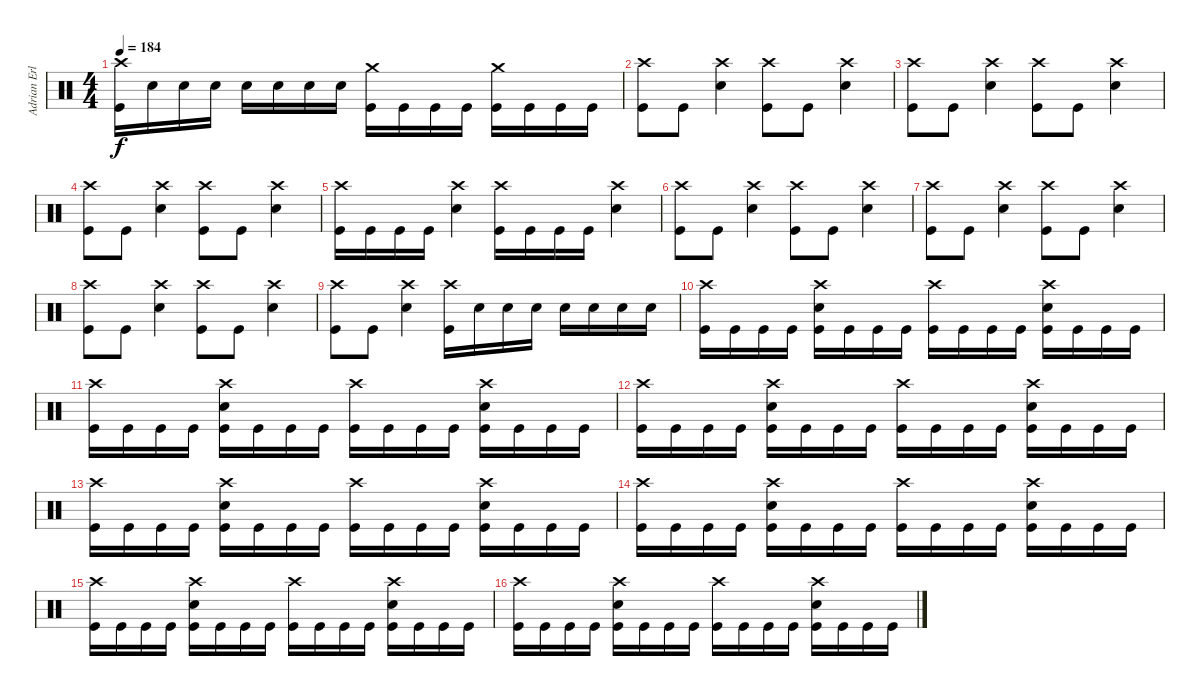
\track ("Adrian Erlandsson (Norseman of the Apoca" "Adrian Erl") {instrument percussion}
\staff {score}
\articulation defaults
\ts (4 4)
\tempo 184
\clef neutral
\ks c
("Crash high (hit)" "Kick (hit)").16{dy f} "Electric Snare (hit)".16 "Electric Snare (hit)".16 "Electric Snare (hit)".16 "Electric Snare (hit)".16 "Electric Snare (hit)".16 "Electric Snare (hit)".16 "Electric Snare (hit)".16 ("Crash medium (hit)" "Kick (hit)").16 "Kick (hit)".16 "Kick (hit)".16 "Kick (hit)".16 ("Crash medium (hit)" "Kick (hit)").16 "Kick (hit)".16 "Kick (hit)".16 "Kick (hit)".16 |
("Crash high (hit)" "Kick (hit)").8 "Kick (hit)".8 ("Crash high (hit)" "Electric Snare (hit)").4 ("Crash high (hit)" "Kick (hit)").8 "Kick (hit)".8 ("Crash high (hit)" "Electric Snare (hit)").4 |
("Crash high (hit)" "Kick (hit)").8 "Kick (hit)".8 ("Crash high (hit)" "Electric Snare (hit)").4 ("Crash high (hit)" "Kick (hit)").8 "Kick (hit)".8 ("Crash high (hit)" "Electric Snare (hit)").4 |
("Crash high (hit)" "Kick (hit)").8 "Kick (hit)".8 ("Crash high (hit)" "Electric Snare (hit)").4 ("Crash high (hit)" "Kick (hit)").8 "Kick (hit)".8 ("Crash high (hit)" "Electric Snare (hit)").4 |
("Crash high (hit)" "Kick (hit)").16 "Kick (hit)".16 "Kick (hit)".16 "Kick (hit)".16 ("Crash high (hit)" "Electric Snare (hit)").4 ("Crash high (hit)" "Kick (hit)").16 "Kick (hit)".16 "Kick (hit)".16 "Kick (hit)".16 ("Crash high (hit)" "Electric Snare (hit)").4 |
("Crash high (hit)" "Kick (hit)").8 "Kick (hit)".8 ("Crash high (hit)" "Electric Snare (hit)").4 ("Crash high (hit)" "Kick (hit)").8 "Kick (hit)".8 ("Crash high (hit)" "Electric Snare (hit)").4 |
("Crash high (hit)" "Kick (hit)").8 "Kick (hit)".8 ("Crash high (hit)" "Electric Snare (hit)").4 ("Crash high (hit)" "Kick (hit)").8 "Kick (hit)".8 ("Crash high (hit)" "Electric Snare (hit)").4 |
("Crash high (hit)" "Kick (hit)").8 "Kick (hit)".8 ("Crash high (hit)" "Electric Snare (hit)").4 ("Crash high (hit)" "Kick (hit)").8 "Kick (hit)".8 ("Crash high (hit)" "Electric Snare (hit)").4 |
("Crash high (hit)" "Kick (hit)").8 "Kick (hit)".8 ("Crash high (hit)" "Electric Snare (hit)").4 ("Crash high (hit)" "Kick (hit)").16 "Electric Snare (hit)".16 "Electric Snare (hit)".16 "Electric Snare (hit)".16 "Electric Snare (hit)".16 "Electric Snare (hit)".16 "Electric Snare (hit)".16 "Electric Snare (hit)".16 |
("Crash high (hit)" "Kick (hit)").16 "Kick (hit)".16 "Kick (hit)".16 "Kick (hit)".16 ("Crash high (hit)" "Electric Snare (hit)" "Kick (hit)").16 "Kick (hit)".16 "Kick (hit)".16 "Kick (hit)".16 ("Crash high (hit)" "Kick (hit)").16 "Kick (hit)".16 "Kick (hit)".16 "Kick (hit)".16 ("Crash high (hit)" "Electric Snare (hit)" "Kick (hit)").16 "Kick (hit)".16 "Kick (hit)".16 "Kick (hit)".16 |
("Crash high (hit)" "Kick (hit)").16 "Kick (hit)".16 "Kick (hit)".16 "Kick (hit)".16 ("Crash high (hit)" "Electric Snare (hit)" "Kick (hit)").16 "Kick (hit)".16 "Kick (hit)".16 "Kick (hit)".16 ("Crash high (hit)" "Kick (hit)").16 "Kick (hit)".16 "Kick (hit)".16 "Kick (hit)".16 ("Crash high (hit)" "Electric Snare (hit)" "Kick (hit)").16 "Kick (hit)".16 "Kick (hit)".16 "Kick (hit)".16 |
("Crash high (hit)" "Kick (hit)").16 "Kick (hit)".16 "Kick (hit)".16 "Kick (hit)".16 ("Crash high (hit)" "Electric Snare (hit)" "Kick (hit)").16 "Kick (hit)".16 "Kick (hit)".16 "Kick (hit)".16 ("Crash high (hit)" "Kick (hit)").16 "Kick (hit)".16 "Kick (hit)".16 "Kick (hit)".16 ("Crash high (hit)" "Electric Snare (hit)" "Kick (hit)").16 "Kick (hit)".16 "Kick (hit)".16 "Kick (hit)".16 |
("Crash high (hit)" "Kick (hit)").16 "Kick (hit)".16 "Kick (hit)".16 "Kick (hit)".16 ("Crash high (hit)" "Electric Snare (hit)" "Kick (hit)").16 "Kick (hit)".16 "Kick (hit)".16 "Kick (hit)".16 ("Crash high (hit)" "Kick (hit)").16 "Kick (hit)".16 "Kick (hit)".16 "Kick (hit)".16 ("Crash high (hit)" "Electric Snare (hit)" "Kick (hit)").16 "Kick (hit)".16 "Kick (hit)".16 "Kick (hit)".16 |
("Crash high (hit)" "Kick (hit)").16 "Kick (hit)".16 "Kick (hit)".16 "Kick (hit)".16 ("Crash high (hit)" "Electric Snare (hit)" "Kick (hit)").16 "Kick (hit)".16 "Kick (hit)".16 "Kick (hit)".16 ("Crash high (hit)" "Kick (hit)").16 "Kick (hit)".16 "Kick (hit)".16 "Kick (hit)".16 ("Crash high (hit)" "Electric Snare (hit)" "Kick (hit)").16 "Kick (hit)".16 "Kick (hit)".16 "Kick (hit)".16 |
("Crash high (hit)" "Kick (hit)").16 "Kick (hit)".16 "Kick (hit)".16 "Kick (hit)".16 ("Crash high (hit)" "Electric Snare (hit)" "Kick (hit)").16 "Kick (hit)".16 "Kick (hit)".16 "Kick (hit)".16 ("Crash high (hit)" "Kick (hit)").16 "Kick (hit)".16 "Kick (hit)".16 "Kick (hit)".16 ("Crash high (hit)" "Electric Snare (hit)" "Kick (hit)").16 "Kick (hit)".16 "Kick (hit)".16 "Kick (hit)".16 |
("Crash high (hit)" "Kick (hit)").16 "Kick (hit)".16 "Kick (hit)".16 "Kick (hit)".16 ("Crash high (hit)" "Electric Snare (hit)" "Kick (hit)").16 "Kick (hit)".16 "Kick (hit)".16 "Kick (hit)".16 ("Crash high (hit)" "Kick (hit)").16 "Kick (hit)".16 "Kick (hit)".16 "Kick (hit)".16 ("Crash high (hit)" "Electric Snare (hit)" "Kick (hit)").16 "Kick (hit)".16 "Kick (hit)".16 "Kick (hit)".16
